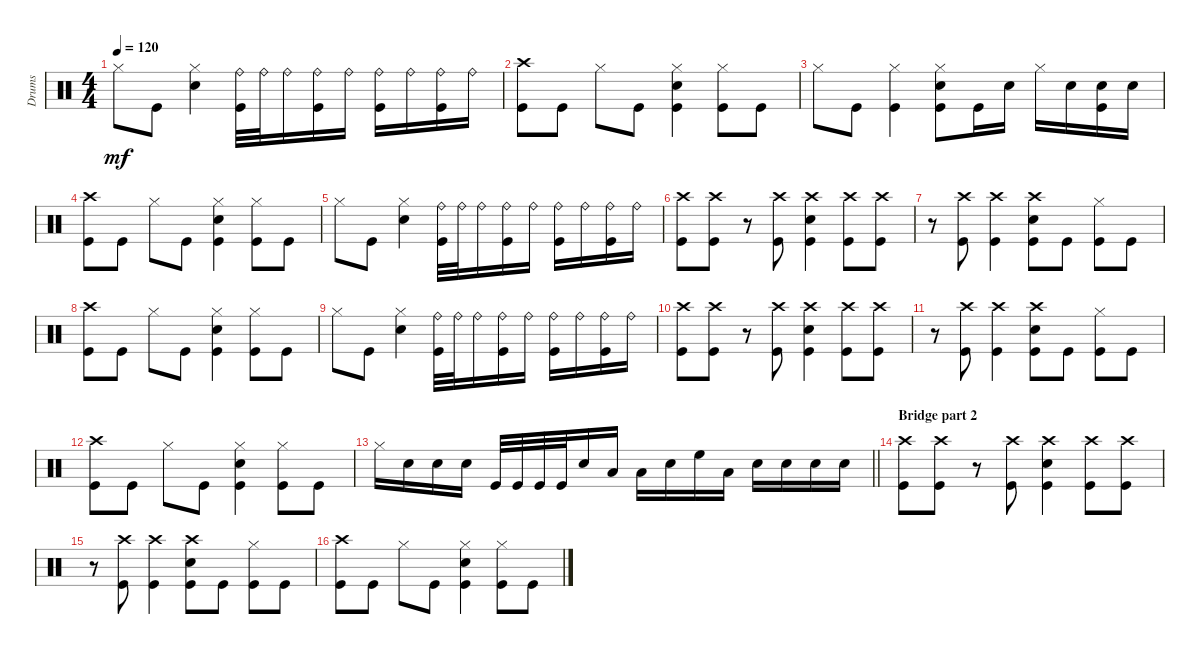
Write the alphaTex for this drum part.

\track ("Drums" "Drums") {instrument percussion}
\staff {score}
\articulation defaults
\ts (4 4)
\tempo 120
\clef neutral
\ks c "Hi-Hat (closed)".8{dy mf} "Kick (hit)".8
("Snare (hit) 2" "Hi-Hat (closed)").4 ("Kick (hit)" "Ride (bell)").32 "Ride (bell)".32 "Ride (bell)".16 ("Kick (hit)" "Ride (bell)").16 "Ride (bell)".16 ("Kick (hit)" "Ride (bell)").16 "Ride (bell)".16 ("Kick (hit)" "Ride (bell)").16 "Ride (bell)".16 |
("Kick (hit)" "Crash high (hit)").8 "Kick (hit)".8 "Hi-Hat (closed)".8 "Kick (hit)".8 ("Kick (hit)" "Snare (hit) 2" "Hi-Hat (closed)").4 ("Kick (hit)" "Hi-Hat (closed)").8 "Kick (hit)".8 |
"Hi-Hat (closed)".8 "Kick (hit)".8 ("Hi-Hat (closed)" "Kick (hit)").4 ("Snare (hit) 2" "Hi-Hat (closed)" "Kick (hit)").8 "Kick (hit)".16 "Snare (hit) 2".16 "Hi-Hat (closed)".16 "Snare (hit) 2".16 ("Snare (hit) 2" "Kick (hit)").16 "Snare (hit) 2".16 |
("Crash high (hit)" "Kick (hit)").8 "Kick (hit)".8 "Hi-Hat (closed)".8 "Kick (hit)".8 ("Snare (hit) 2" "Hi-Hat (closed)" "Kick (hit)").4 ("Hi-Hat (closed)" "Kick (hit)").8 "Kick (hit)".8 |
"Hi-Hat (closed)".8 "Kick (hit)".8 ("Snare (hit) 2" "Hi-Hat (closed)").4 ("Kick (hit)" "Ride (bell)").32 "Ride (bell)".32 "Ride (bell)".16 ("Kick (hit)" "Ride (bell)").16 "Ride (bell)".16 ("Kick (hit)" "Ride (bell)").16 "Ride (bell)".16 ("Kick (hit)" "Ride (bell)").16 "Ride (bell)".16 |
("Kick (hit)" "Crash high (hit)").8 ("Kick (hit)" "Crash high (hit)").8 r.8 ("Kick (hit)" "Crash high (hit)").8 ("Kick (hit)" "Snare (hit) 2" "Crash high (hit)").4 ("Kick (hit)" "Crash high (hit)").8 ("Kick (hit)" "Crash high (hit)").8 |
r.8 ("Kick (hit)" "Crash high (hit)").8 ("Kick (hit)" "Crash high (hit)").4 ("Kick (hit)" "Snare (hit) 2" "Crash high (hit)").8 "Kick (hit)".8 ("Kick (hit)" "Hi-Hat (closed)").8 "Kick (hit)".8 |
("Crash high (hit)" "Kick (hit)").8 "Kick (hit)".8 "Hi-Hat (closed)".8 "Kick (hit)".8 ("Snare (hit) 2" "Hi-Hat (closed)" "Kick (hit)").4 ("Hi-Hat (closed)" "Kick (hit)").8 "Kick (hit)".8 |
"Hi-Hat (closed)".8 "Kick (hit)".8 ("Snare (hit) 2" "Hi-Hat (closed)").4 ("Kick (hit)" "Ride (bell)").32 "Ride (bell)".32 "Ride (bell)".16 ("Kick (hit)" "Ride (bell)").16 "Ride (bell)".16 ("Kick (hit)" "Ride (bell)").16 "Ride (bell)".16 ("Kick (hit)" "Ride (bell)").16 "Ride (bell)".16 |
("Crash high (hit)" "Kick (hit)").8 ("Crash high (hit)" "Kick (hit)").8 r.8 ("Crash high (hit)" "Kick (hit)").8 ("Snare (hit) 2" "Crash high (hit)" "Kick (hit)").4 ("Crash high (hit)" "Kick (hit)").8 ("Crash high (hit)" "Kick (hit)").8 |
r.8 ("Crash high (hit)" "Kick (hit)").8 ("Crash high (hit)" "Kick (hit)").4 ("Snare (hit) 2" "Crash high (hit)" "Kick (hit)").8 "Kick (hit)".8 ("Hi-Hat (closed)" "Kick (hit)").8 "Kick (hit)".8 |
("Kick (hit)" "Crash high (hit)").8 "Kick (hit)".8 "Hi-Hat (closed)".8 "Kick (hit)".8 ("Kick (hit)" "Snare (hit) 2" "Hi-Hat (closed)").4 ("Kick (hit)" "Hi-Hat (closed)").8 "Kick (hit)".8 |
\barLineRight lightlight "Hi-Hat (closed)".16 "Snare (hit) 2".16 "Snare (hit) 2".16 "Snare (hit) 2".16 "Kick (hit)".32 "Kick (hit)".32 "Kick (hit)".32 "Kick (hit)".32 "Snare (hit) 2".16 "Low Floor Tom (hit)".16 "Low Tom (hit)".16 "Snare (hit) 2".16 "High Floor Tom (hit)".16 "Low Tom (hit)".16 "Snare (hit) 2".16 "Snare (hit) 2".16 "Snare (hit) 2".16 "Snare (hit) 2".16
|
\section ("" "Bridge part 2")
("Kick (hit)" "Crash high (hit)").8 ("Kick (hit)" "Crash high (hit)").8 r.8 ("Kick (hit)" "Crash high (hit)").8 ("Kick (hit)" "Snare (hit) 2" "Crash high (hit)").4 ("Kick (hit)" "Crash high (hit)").8 ("Kick (hit)" "Crash high (hit)").8 |
r.8 ("Kick (hit)" "Crash high (hit)").8 ("Kick (hit)" "Crash high (hit)").4 ("Kick (hit)" "Snare (hit) 2" "Crash high (hit)").8 "Kick (hit)".8 ("Kick (hit)" "Hi-Hat (closed)").8 "Kick (hit)".8 |
("Crash high (hit)" "Kick (hit)").8 "Kick (hit)".8 "Hi-Hat (closed)".8 "Kick (hit)".8 ("Snare (hit) 2" "Hi-Hat (closed)" "Kick (hit)").4 ("Hi-Hat (closed)" "Kick (hit)").8 "Kick (hit)".8
